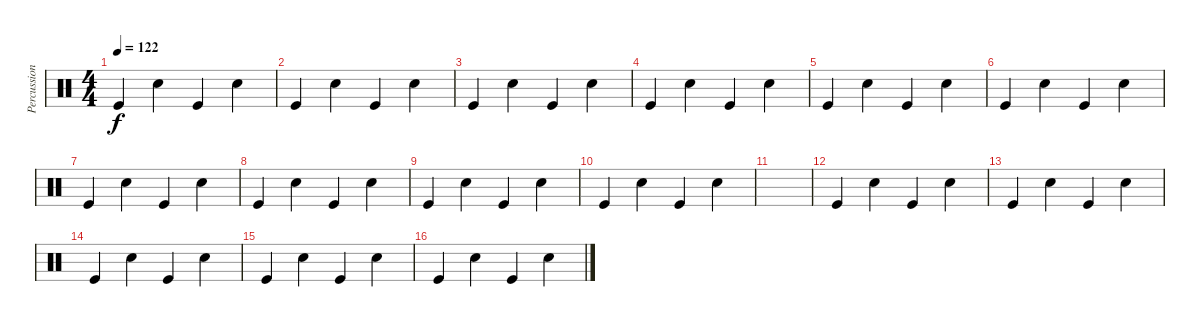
\track ("Percussion" "Percussion") {instrument percussion}
\staff {score}
\articulation defaults
\ts (4 4)
\tempo 122
\clef neutral
\ks c "Kick (hit)".4{dy f} "Snare (hit) 2".4 "Kick (hit)".4 "Snare (hit) 2".4
|
"Kick (hit)".4 "Snare (hit) 2".4 "Kick (hit)".4 "Snare (hit) 2".4 |
"Kick (hit)".4 "Snare (hit) 2".4 "Kick (hit)".4 "Snare (hit) 2".4 |
"Kick (hit)".4 "Snare (hit) 2".4 "Kick (hit)".4 "Snare (hit) 2".4 |
"Kick (hit)".4 "Snare (hit) 2".4 "Kick (hit)".4 "Snare (hit) 2".4 |
"Kick (hit)".4 "Snare (hit) 2".4 "Kick (hit)".4 "Snare (hit) 2".4 |
"Kick (hit)".4 "Snare (hit) 2".4 "Kick (hit)".4 "Snare (hit) 2".4 |
"Kick (hit)".4 "Snare (hit) 2".4 "Kick (hit)".4 "Snare (hit) 2".4 |
"Kick (hit)".4 "Snare (hit) 2".4 "Kick (hit)".4 "Snare (hit) 2".4 |
"Kick (hit)".4 "Snare (hit) 2".4 "Kick (hit)".4 "Snare (hit) 2".4 |
|
"Kick (hit)".4 "Snare (hit) 2".4 "Kick (hit)".4 "Snare (hit) 2".4 |
"Kick (hit)".4 "Snare (hit) 2".4 "Kick (hit)".4 "Snare (hit) 2".4 |
"Kick (hit)".4 "Snare (hit) 2".4 "Kick (hit)".4 "Snare (hit) 2".4 |
"Kick (hit)".4 "Snare (hit) 2".4 "Kick (hit)".4 "Snare (hit) 2".4 |
"Kick (hit)".4 "Snare (hit) 2".4 "Kick (hit)".4 "Snare (hit) 2".4
